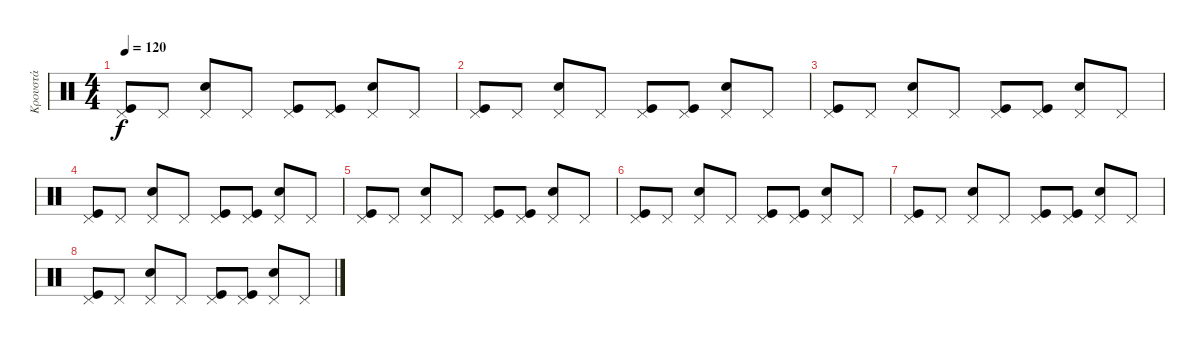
\track ("Κρουστά" "Κρουστά") {instrument percussion}
\staff {score}
\articulation defaults
\ts (4 4)
\tempo 120
\clef neutral
\ks c
("Pedal Hi-Hat (hit)" "Kick (hit)").8{dy f volume 7} "Pedal Hi-Hat (hit)".8 ("Pedal Hi-Hat (hit)" "Snare (hit) 2").8 "Pedal Hi-Hat (hit)".8 ("Pedal Hi-Hat (hit)" "Kick (hit)").8 ("Pedal Hi-Hat (hit)" "Kick (hit)").8 ("Pedal Hi-Hat (hit)" "Snare (hit) 2").8 "Pedal Hi-Hat (hit)".8 |
("Pedal Hi-Hat (hit)" "Kick (hit)").8 "Pedal Hi-Hat (hit)".8 ("Pedal Hi-Hat (hit)" "Snare (hit) 2").8 "Pedal Hi-Hat (hit)".8 ("Pedal Hi-Hat (hit)" "Kick (hit)").8 ("Pedal Hi-Hat (hit)" "Kick (hit)").8 ("Pedal Hi-Hat (hit)" "Snare (hit) 2").8 "Pedal Hi-Hat (hit)".8 |
("Pedal Hi-Hat (hit)" "Kick (hit)").8 "Pedal Hi-Hat (hit)".8 ("Pedal Hi-Hat (hit)" "Snare (hit) 2").8 "Pedal Hi-Hat (hit)".8 ("Pedal Hi-Hat (hit)" "Kick (hit)").8 ("Pedal Hi-Hat (hit)" "Kick (hit)").8 ("Pedal Hi-Hat (hit)" "Snare (hit) 2").8 "Pedal Hi-Hat (hit)".8 |
("Pedal Hi-Hat (hit)" "Kick (hit)").8 "Pedal Hi-Hat (hit)".8 ("Pedal Hi-Hat (hit)" "Snare (hit) 2").8 "Pedal Hi-Hat (hit)".8 ("Pedal Hi-Hat (hit)" "Kick (hit)").8 ("Pedal Hi-Hat (hit)" "Kick (hit)").8 ("Pedal Hi-Hat (hit)" "Snare (hit) 2").8 "Pedal Hi-Hat (hit)".8 |
("Pedal Hi-Hat (hit)" "Kick (hit)").8{volume 1} "Pedal Hi-Hat (hit)".8 ("Pedal Hi-Hat (hit)" "Snare (hit) 2").8 "Pedal Hi-Hat (hit)".8 ("Pedal Hi-Hat (hit)" "Kick (hit)").8 ("Pedal Hi-Hat (hit)" "Kick (hit)").8 ("Pedal Hi-Hat (hit)" "Snare (hit) 2").8 "Pedal Hi-Hat (hit)".8 |
("Pedal Hi-Hat (hit)" "Kick (hit)").8 "Pedal Hi-Hat (hit)".8 ("Pedal Hi-Hat (hit)" "Snare (hit) 2").8 "Pedal Hi-Hat (hit)".8 ("Pedal Hi-Hat (hit)" "Kick (hit)").8 ("Pedal Hi-Hat (hit)" "Kick (hit)").8 ("Pedal Hi-Hat (hit)" "Snare (hit) 2").8 "Pedal Hi-Hat (hit)".8 |
("Pedal Hi-Hat (hit)" "Kick (hit)").8 "Pedal Hi-Hat (hit)".8 ("Pedal Hi-Hat (hit)" "Snare (hit) 2").8 "Pedal Hi-Hat (hit)".8 ("Pedal Hi-Hat (hit)" "Kick (hit)").8 ("Pedal Hi-Hat (hit)" "Kick (hit)").8 ("Pedal Hi-Hat (hit)" "Snare (hit) 2").8 "Pedal Hi-Hat (hit)".8 |
("Pedal Hi-Hat (hit)" "Kick (hit)").8 "Pedal Hi-Hat (hit)".8 ("Pedal Hi-Hat (hit)" "Snare (hit) 2").8 "Pedal Hi-Hat (hit)".8 ("Pedal Hi-Hat (hit)" "Kick (hit)").8 ("Pedal Hi-Hat (hit)" "Kick (hit)").8 ("Pedal Hi-Hat (hit)" "Snare (hit) 2").8 "Pedal Hi-Hat (hit)".8
